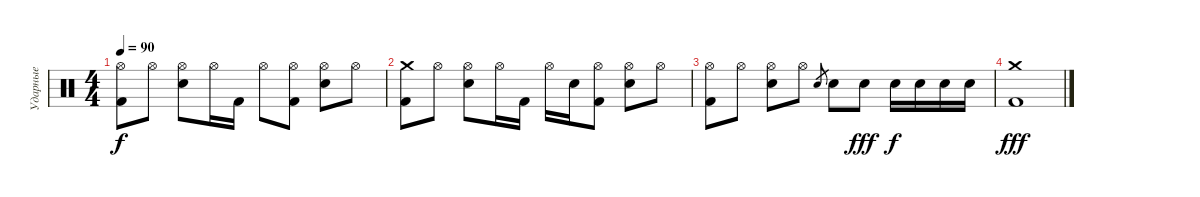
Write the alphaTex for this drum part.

\track ("Ударные" "Ударные") {instrument percussion}
\staff {score}
\articulation defaults
\ts (4 4)
\tempo 90
\clef neutral
\ks c
("Hi-Hat (open)" "Kick (hit) 2").8{dy f} "Hi-Hat (open)".8 ("Hi-Hat (open)" "Snare (hit) 2").8 "Hi-Hat (open)".16 "Kick (hit) 2".16 "Hi-Hat (open)".8 ("Hi-Hat (open)" "Kick (hit) 2").8 ("Hi-Hat (open)" "Snare (hit) 2").8 "Hi-Hat (open)".8 |
("Crash medium (hit)" "Kick (hit) 2").8 "Hi-Hat (open)".8 ("Hi-Hat (open)" "Snare (hit) 2").8 "Hi-Hat (open)".16 "Kick (hit) 2".16 "Hi-Hat (open)".16 "Snare (hit) 2".16 ("Hi-Hat (open)" "Kick (hit) 2").8 ("Hi-Hat (open)" "Snare (hit) 2").8 "Hi-Hat (open)".8 |
("Hi-Hat (open)" "Kick (hit) 2").8 "Hi-Hat (open)".8 ("Hi-Hat (open)" "Snare (hit) 2").8 "Hi-Hat (open)".8 "Snare (hit) 2".8{gr} "Snare (hit) 2".8 "Snare (hit) 2".8{dy fff} "Snare (hit) 2".16{dy f} "Snare (hit) 2".16 "Snare (hit) 2".16 "Snare (hit) 2".16 |
("Crash medium (hit)" "Kick (hit) 2").1{dy fff}
